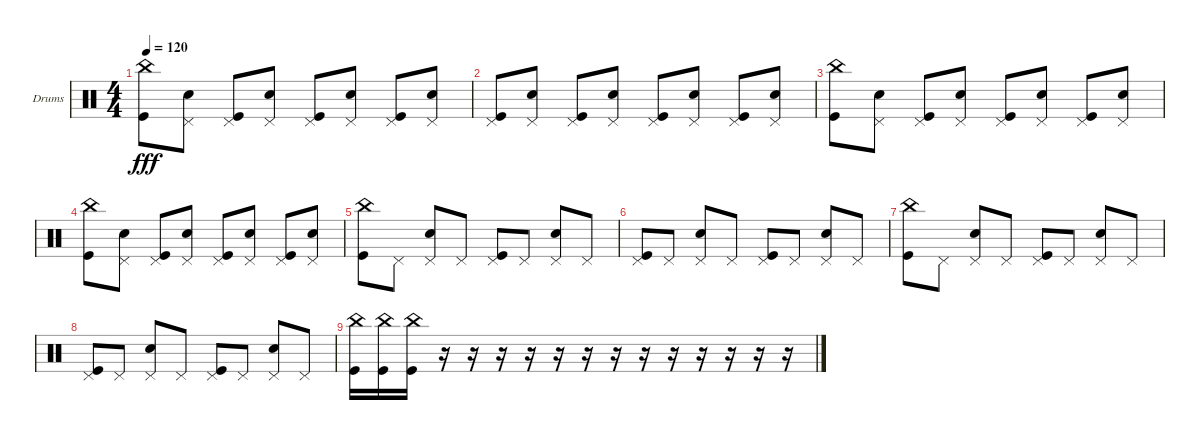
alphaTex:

\defaultSystemsLayout 4
\bracketExtendMode groupsimilarinstruments
\firstSystemTrackNameOrientation horizontal
\otherSystemsTrackNameOrientation horizontal
\track ("Drumkit" "Drums") {instrument percussion}
\staff {score}
\articulation defaults
\ts (4 4)
\tempo 120
\clef neutral
\ks c
("Kick (hit)" "China (hit)").8{dy fff} ("Pedal Hi-Hat (hit)" "Snare (hit) 2").8 ("Pedal Hi-Hat (hit)" "Kick (hit)").8 ("Pedal Hi-Hat (hit)" "Snare (hit) 2").8 ("Kick (hit)" "Pedal Hi-Hat (hit)").8 ("Pedal Hi-Hat (hit)" "Snare (hit) 2").8 ("Pedal Hi-Hat (hit)" "Kick (hit)").8 ("Pedal Hi-Hat (hit)" "Snare (hit) 2").8 |
("Kick (hit)" "Pedal Hi-Hat (hit)").8 ("Pedal Hi-Hat (hit)" "Snare (hit) 2").8 ("Pedal Hi-Hat (hit)" "Kick (hit)").8 ("Pedal Hi-Hat (hit)" "Snare (hit) 2").8 ("Kick (hit)" "Pedal Hi-Hat (hit)").8 ("Pedal Hi-Hat (hit)" "Snare (hit) 2").8 ("Pedal Hi-Hat (hit)" "Kick (hit)").8 ("Pedal Hi-Hat (hit)" "Snare (hit) 2").8 |
("Kick (hit)" "China (hit)").8 ("Pedal Hi-Hat (hit)" "Snare (hit) 2").8 ("Pedal Hi-Hat (hit)" "Kick (hit)").8 ("Pedal Hi-Hat (hit)" "Snare (hit) 2").8 ("Kick (hit)" "Pedal Hi-Hat (hit)").8 ("Pedal Hi-Hat (hit)" "Snare (hit) 2").8 ("Pedal Hi-Hat (hit)" "Kick (hit)").8 ("Pedal Hi-Hat (hit)" "Snare (hit) 2").8 |
("Kick (hit)" "China (hit)").8 ("Pedal Hi-Hat (hit)" "Snare (hit) 2").8 ("Pedal Hi-Hat (hit)" "Kick (hit)").8 ("Pedal Hi-Hat (hit)" "Snare (hit) 2").8 ("Kick (hit)" "Pedal Hi-Hat (hit)").8 ("Pedal Hi-Hat (hit)" "Snare (hit) 2").8 ("Pedal Hi-Hat (hit)" "Kick (hit)").8 ("Pedal Hi-Hat (hit)" "Snare (hit) 2").8 |
("Kick (hit)" "China (hit)").8 "Pedal Hi-Hat (hit)".8 ("Snare (hit) 2" "Pedal Hi-Hat (hit)").8 "Pedal Hi-Hat (hit)".8 ("Kick (hit)" "Pedal Hi-Hat (hit)").8 "Pedal Hi-Hat (hit)".8 ("Snare (hit) 2" "Pedal Hi-Hat (hit)").8 "Pedal Hi-Hat (hit)".8 |
("Kick (hit)" "Pedal Hi-Hat (hit)").8 "Pedal Hi-Hat (hit)".8 ("Snare (hit) 2" "Pedal Hi-Hat (hit)").8 "Pedal Hi-Hat (hit)".8 ("Kick (hit)" "Pedal Hi-Hat (hit)").8 "Pedal Hi-Hat (hit)".8 ("Snare (hit) 2" "Pedal Hi-Hat (hit)").8 "Pedal Hi-Hat (hit)".8 |
("Kick (hit)" "China (hit)").8 "Pedal Hi-Hat (hit)".8 ("Snare (hit) 2" "Pedal Hi-Hat (hit)").8 "Pedal Hi-Hat (hit)".8 ("Kick (hit)" "Pedal Hi-Hat (hit)").8 "Pedal Hi-Hat (hit)".8 ("Snare (hit) 2" "Pedal Hi-Hat (hit)").8 "Pedal Hi-Hat (hit)".8 |
("Kick (hit)" "Pedal Hi-Hat (hit)").8 "Pedal Hi-Hat (hit)".8 ("Snare (hit) 2" "Pedal Hi-Hat (hit)").8 "Pedal Hi-Hat (hit)".8 ("Kick (hit)" "Pedal Hi-Hat (hit)").8 "Pedal Hi-Hat (hit)".8 ("Snare (hit) 2" "Pedal Hi-Hat (hit)").8 "Pedal Hi-Hat (hit)".8 |
("Kick (hit)" "China (hit)").16 ("Kick (hit)" "China (hit)").16 ("Kick (hit)" "China (hit)").16 r.16 r.16 r.16 r.16 r.16 r.16 r.16 r.16 r.16 r.16 r.16 r.16 r.16
